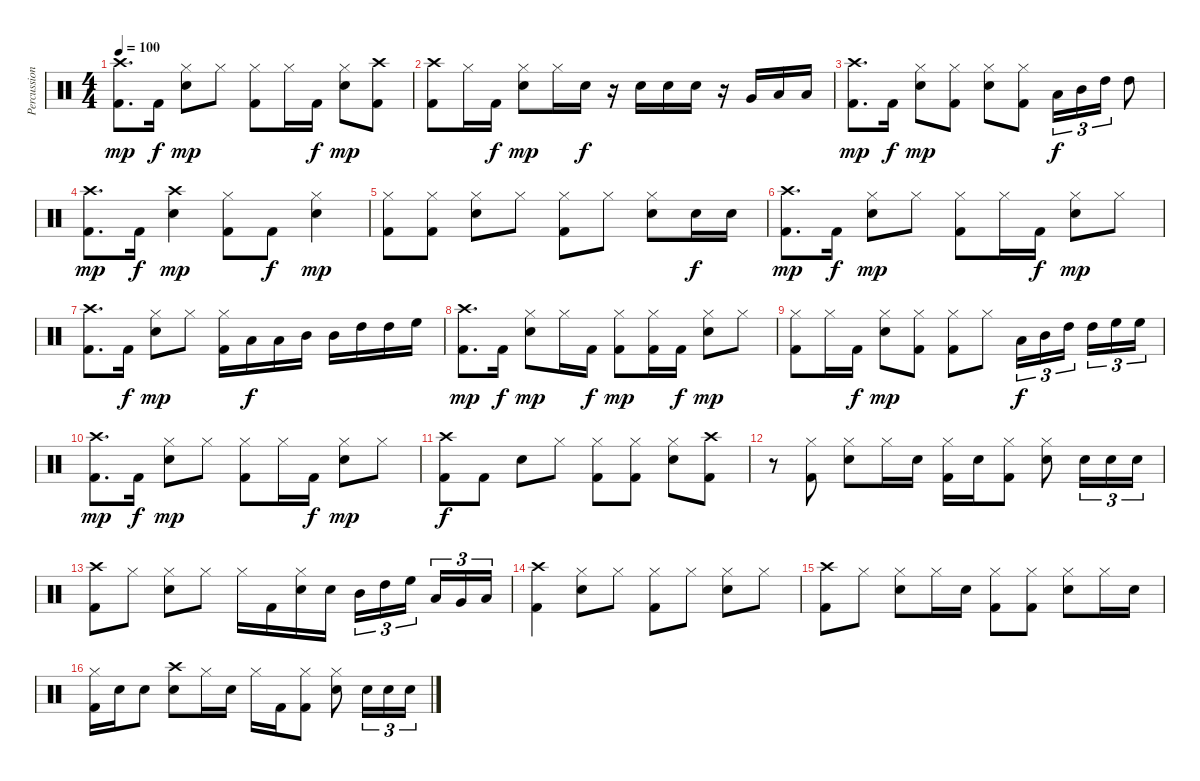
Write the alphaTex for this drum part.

\track ("Percussion" "Percussion") {instrument percussion}
\staff {score}
\articulation defaults
\ts (4 4)
\tempo 100
\clef neutral
\ks c
("Kick (hit) 2" "Crash high (hit)").8{d dy mp} "Kick (hit) 2".16{dy f} ("Snare (hit) 2" "Hi-Hat (closed)").8{dy mp} "Hi-Hat (closed)".8 ("Kick (hit) 2" "Hi-Hat (closed)").8 "Hi-Hat (closed)".16 "Kick (hit) 2".16{dy f} ("Snare (hit) 2" "Hi-Hat (closed)").8{dy mp} ("Kick (hit) 2" "Crash high (hit)").8 |
("Kick (hit) 2" "Crash high (hit)").8 "Hi-Hat (closed)".16 "Kick (hit) 2".16{dy f} ("Snare (hit) 2" "Hi-Hat (closed)").8{dy mp} "Hi-Hat (closed)".16 "Snare (hit) 2".16{dy f} r.16 "Snare (hit) 2".16 "Snare (hit) 2".16 "Snare (hit) 2".16 r.16 "Very Low Tom (hit)".16 "Low Floor Tom (hit)".16 "Low Tom (hit)".16 |
("Kick (hit) 2" "Crash high (hit)").8{d dy mp} "Kick (hit) 2".16{dy f} ("Snare (hit) 2" "Hi-Hat (closed)").8{dy mp} ("Kick (hit) 2" "Hi-Hat (closed)").8 ("Snare (hit) 2" "Hi-Hat (closed)").8 ("Kick (hit) 2" "Hi-Hat (closed)").8 "Low Tom (hit)".16{tu (3 2) dy f} "Mid Tom (hit)".16{tu (3 2)} "High Tom (hit)".16{tu (3 2)} "High Tom (hit)".8 |
("Kick (hit) 2" "Crash high (hit)").8{d dy mp} "Kick (hit) 2".16{dy f} ("Snare (hit) 2" "Crash high (hit)").4{dy mp} ("Kick (hit) 2" "Hi-Hat (closed)").8 "Kick (hit) 2".8{dy f} ("Snare (hit) 2" "Hi-Hat (closed)").4{dy mp} |
("Kick (hit) 2" "Hi-Hat (closed)").8 ("Kick (hit) 2" "Hi-Hat (closed)").8 ("Snare (hit) 2" "Hi-Hat (closed)").8 "Hi-Hat (closed)".8 ("Kick (hit) 2" "Hi-Hat (closed)").8 "Hi-Hat (closed)".8 ("Snare (hit) 2" "Hi-Hat (closed)").8 "Snare (hit) 2".16{dy f} "Snare (hit) 2".16 |
("Kick (hit) 2" "Crash high (hit)").8{d dy mp} "Kick (hit) 2".16{dy f} ("Snare (hit) 2" "Hi-Hat (closed)").8{dy mp} "Hi-Hat (closed)".8 ("Kick (hit) 2" "Hi-Hat (closed)").8 "Hi-Hat (closed)".16 "Kick (hit) 2".16{dy f} ("Snare (hit) 2" "Hi-Hat (closed)").8{dy mp} "Hi-Hat (closed)".8 |
("Kick (hit) 2" "Crash high (hit)").8{d} "Kick (hit) 2".16{dy f} ("Snare (hit) 2" "Hi-Hat (closed)").8{dy mp} "Hi-Hat (closed)".8 ("Kick (hit) 2" "Hi-Hat (closed)").16 "Low Tom (hit)".16{dy f} "Low Tom (hit)".16 "Mid Tom (hit)".16 "Mid Tom (hit)".16 "High Tom (hit)".16 "High Tom (hit)".16 "High Floor Tom (hit)".16 |
("Kick (hit) 2" "Crash high (hit)").8{d dy mp} "Kick (hit) 2".16{dy f} ("Snare (hit) 2" "Hi-Hat (closed)").8{dy mp} "Hi-Hat (closed)".16 "Kick (hit) 2".16{dy f} ("Kick (hit) 2" "Hi-Hat (closed)").8{dy mp} ("Kick (hit) 2" "Hi-Hat (closed)").16 "Kick (hit) 2".16{dy f} ("Snare (hit) 2" "Hi-Hat (closed)").8{dy mp} "Hi-Hat (closed)".8 |
("Kick (hit) 2" "Hi-Hat (closed)").8 "Hi-Hat (closed)".16 "Kick (hit) 2".16{dy f} ("Snare (hit) 2" "Hi-Hat (closed)").8{dy mp} ("Kick (hit) 2" "Hi-Hat (closed)").8 ("Kick (hit) 2" "Hi-Hat (closed)").8 "Hi-Hat (closed)".8 "Low Tom (hit)".16{tu (3 2) dy f} "Mid Tom (hit)".16{tu (3 2)} "High Tom (hit)".16{tu (3 2)} "High Tom (hit)".16{tu (3 2)} "High Floor Tom (hit)".16{tu (3 2)} "High Floor Tom (hit)".16{tu (3 2)} |
("Kick (hit) 2" "Crash high (hit)").8{d dy mp} "Kick (hit) 2".16{dy f} ("Snare (hit) 2" "Hi-Hat (closed)").8{dy mp} "Hi-Hat (closed)".8 ("Kick (hit) 2" "Hi-Hat (closed)").8 "Hi-Hat (closed)".16 "Kick (hit) 2".16{dy f} ("Snare (hit) 2" "Hi-Hat (closed)").8{dy mp} "Hi-Hat (closed)".8 |
("Kick (hit) 2" "Crash high (hit)").8{dy f} "Kick (hit) 2".8 "Snare (hit) 2".8 "Hi-Hat (closed)".8 ("Kick (hit) 2" "Hi-Hat (closed)").8 ("Kick (hit) 2" "Hi-Hat (closed)").8 ("Snare (hit) 2" "Hi-Hat (closed)").8 ("Kick (hit) 2" "Crash high (hit)").8 |
r.8 ("Kick (hit) 2" "Hi-Hat (closed)").8 ("Snare (hit) 2" "Hi-Hat (closed)").8 "Hi-Hat (closed)".16 "Snare (hit) 2".16 ("Kick (hit) 2" "Hi-Hat (closed)").16 "Snare (hit) 2".16 ("Kick (hit) 2" "Hi-Hat (closed)").8 ("Snare (hit) 2" "Hi-Hat (closed)").8 "Snare (hit) 2".16{tu (3 2)} "Snare (hit) 2".16{tu (3 2)} "Snare (hit) 2".16{tu (3 2)} |
("Kick (hit) 2" "Crash high (hit)").8 "Hi-Hat (closed)".8 ("Snare (hit) 2" "Hi-Hat (closed)").8 "Hi-Hat (closed)".8 "Hi-Hat (closed)".16 "Kick (hit) 2".16 ("Snare (hit) 2" "Hi-Hat (closed)").16 "Snare (hit) 2".16 "Mid Tom (hit)".16{tu (3 2)} "High Tom (hit)".16{tu (3 2)} "High Floor Tom (hit)".16{tu (3 2)} "Low Tom (hit)".16{tu (3 2)} "Very Low Tom (hit)".16{tu (3 2)} "Low Floor Tom (hit)".16{tu (3 2)} |
("Kick (hit) 2" "Crash high (hit)").4 ("Snare (hit) 2" "Hi-Hat (closed)").8 "Hi-Hat (closed)".8 ("Kick (hit) 2" "Hi-Hat (closed)").8 "Hi-Hat (closed)".8 ("Snare (hit) 2" "Hi-Hat (closed)").8 "Hi-Hat (closed)".8 |
("Kick (hit) 2" "Crash high (hit)").8 "Hi-Hat (closed)".8 ("Snare (hit) 2" "Hi-Hat (closed)").8 "Hi-Hat (closed)".16 "Snare (hit) 2".16 ("Kick (hit) 2" "Hi-Hat (closed)").8 ("Kick (hit) 2" "Hi-Hat (closed)").8 ("Snare (hit) 2" "Hi-Hat (closed)").8 "Hi-Hat (closed)".16 "Snare (hit) 2".16 |
("Kick (hit) 2" "Hi-Hat (closed)").16 "Snare (hit) 2".16 "Snare (hit) 2".8 ("Snare (hit) 2" "Crash high (hit)").8 "Hi-Hat (closed)".16 "Snare (hit) 2".16 "Hi-Hat (closed)".16 "Kick (hit) 2".16 ("Kick (hit) 2" "Hi-Hat (closed)").8 ("Snare (hit) 2" "Hi-Hat (closed)").8 "Snare (hit) 2".16{tu (3 2)} "Snare (hit) 2".16{tu (3 2)} "Snare (hit) 2".16{tu (3 2)}
